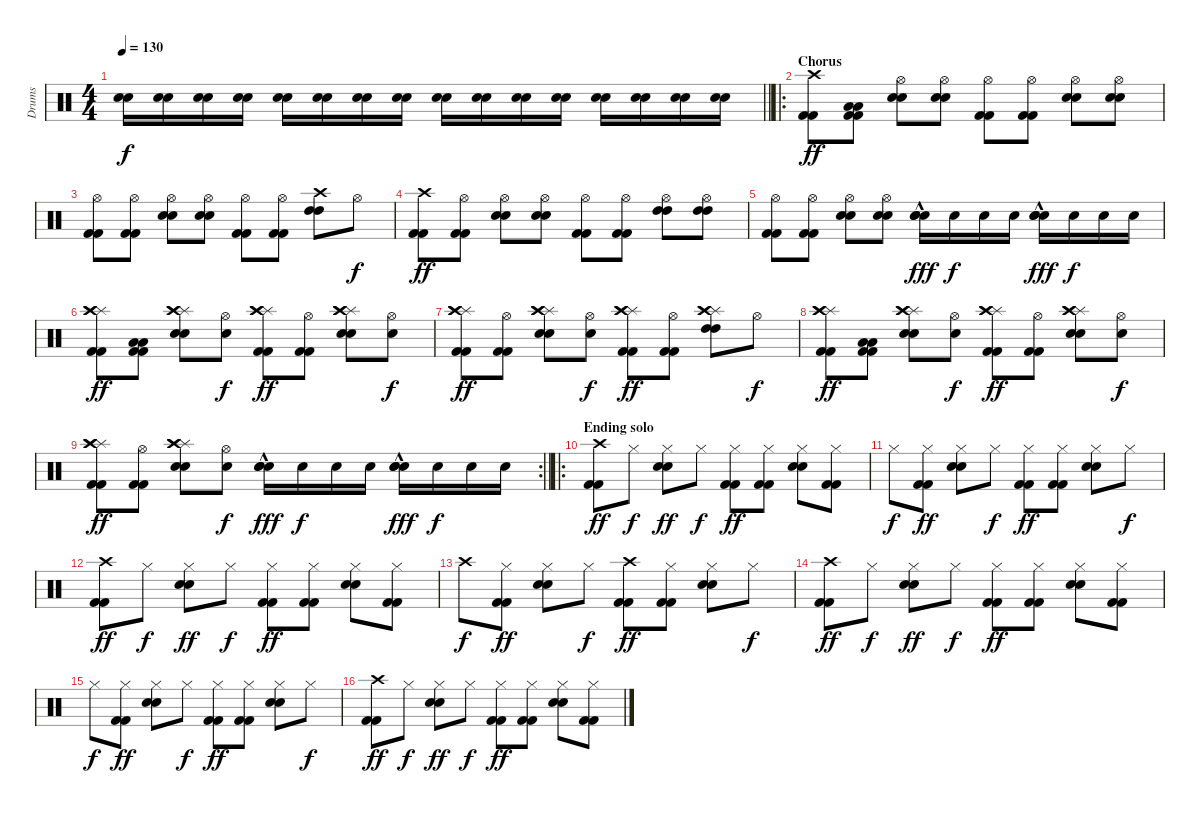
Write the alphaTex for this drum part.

\track ("Drums" "Drums") {instrument percussion}
\staff {score}
\articulation defaults
\ts (4 4)
\tempo 130
\clef neutral
\barLineRight lightlight
\ks c
("Snare (hit) 2" "Electric Snare (hit)").16{dy f} ("Snare (hit) 2" "Electric Snare (hit)").16 ("Snare (hit) 2" "Electric Snare (hit)").16 ("Snare (hit) 2" "Electric Snare (hit)").16 ("Snare (hit) 2" "Electric Snare (hit)").16 ("Snare (hit) 2" "Electric Snare (hit)").16 ("Snare (hit) 2" "Electric Snare (hit)").16 ("Snare (hit) 2" "Electric Snare (hit)").16 ("Snare (hit) 2" "Electric Snare (hit)").16 ("Snare (hit) 2" "Electric Snare (hit)").16 ("Snare (hit) 2" "Electric Snare (hit)").16 ("Snare (hit) 2" "Electric Snare (hit)").16 ("Snare (hit) 2" "Electric Snare (hit)").16 ("Snare (hit) 2" "Electric Snare (hit)").16 ("Snare (hit) 2" "Electric Snare (hit)").16 ("Snare (hit) 2" "Electric Snare (hit)").16 |
\ro
\section ("" "Chorus")
("Kick (hit) 2" "Kick (hit) 2" "Crash high (hit)").8{dy ff} ("Kick (hit) 2" "Kick (hit) 2" "Low Tom (hit)" "Low Tom (hit)").8 ("Electric Snare (hit)" "Electric Snare (hit)" "Hi-Hat (open)").8 ("Electric Snare (hit)" "Electric Snare (hit)" "Hi-Hat (open)").8 ("Kick (hit) 2" "Kick (hit) 2" "Hi-Hat (open)").8 ("Kick (hit) 2" "Kick (hit) 2" "Hi-Hat (open)").8 ("Electric Snare (hit)" "Electric Snare (hit)" "Hi-Hat (open)").8 ("Electric Snare (hit)" "Electric Snare (hit)" "Hi-Hat (open)").8 |
("Kick (hit) 2" "Kick (hit) 2" "Hi-Hat (open)").8 ("Kick (hit) 2" "Kick (hit) 2" "Hi-Hat (open)").8 ("Electric Snare (hit)" "Electric Snare (hit)" "Hi-Hat (open)").8 ("Electric Snare (hit)" "Electric Snare (hit)" "Hi-Hat (open)").8 ("Kick (hit) 2" "Kick (hit) 2" "Hi-Hat (open)").8 ("Kick (hit) 2" "Kick (hit) 2" "Hi-Hat (open)").8 ("High Tom (hit)" "High Tom (hit)" "Crash high (hit)").8 "Hi-Hat (open)".8{dy f} |
("Kick (hit) 2" "Kick (hit) 2" "Crash high (hit)").8{dy ff} ("Kick (hit) 2" "Kick (hit) 2" "Hi-Hat (open)").8 ("Electric Snare (hit)" "Electric Snare (hit)" "Hi-Hat (open)").8 ("Electric Snare (hit)" "Electric Snare (hit)" "Hi-Hat (open)").8 ("Kick (hit) 2" "Kick (hit) 2" "Hi-Hat (open)").8 ("Kick (hit) 2" "Kick (hit) 2" "Hi-Hat (open)").8 ("High Tom (hit)" "High Tom (hit)" "Hi-Hat (open)").8 ("High Tom (hit)" "High Tom (hit)" "Hi-Hat (open)").8 |
("Kick (hit) 2" "Kick (hit) 2" "Hi-Hat (open)").8 ("Kick (hit) 2" "Kick (hit) 2" "Hi-Hat (open)").8 ("Electric Snare (hit)" "Electric Snare (hit)" "Hi-Hat (open)").8 ("Electric Snare (hit)" "Electric Snare (hit)" "Hi-Hat (open)").8 ("Snare (hit) 2"{hac} "Electric Snare (hit)"{hac} "Snare (hit) 2"{hac}).16{dy fff} "Electric Snare (hit)".16{dy f} "Electric Snare (hit)".16 "Electric Snare (hit)".16 ("Snare (hit) 2"{hac} "Electric Snare (hit)"{hac} "Snare (hit) 2"{hac}).16{dy fff} "Electric Snare (hit)".16{dy f} "Electric Snare (hit)".16 "Electric Snare (hit)".16 |
("Kick (hit) 2" "Kick (hit) 2" "Splash (hit)" "Crash high (hit)" "Crash high (hit)").8{dy ff} ("Kick (hit) 2" "Kick (hit) 2" "Low Tom (hit)" "Low Tom (hit)").8 ("Electric Snare (hit)" "Electric Snare (hit)" "Splash (hit)" "Crash high (hit)" "Crash high (hit)").8 ("Electric Snare (hit)" "Hi-Hat (open)").8{dy f} ("Kick (hit) 2" "Kick (hit) 2" "Splash (hit)" "Crash high (hit)" "Crash high (hit)").8{dy ff} ("Kick (hit) 2" "Kick (hit) 2" "Hi-Hat (open)").8 ("Electric Snare (hit)" "Electric Snare (hit)" "Splash (hit)" "Crash high (hit)" "Crash high (hit)").8 ("Electric Snare (hit)" "Hi-Hat (open)").8{dy f} |
("Kick (hit) 2" "Kick (hit) 2" "Splash (hit)" "Crash high (hit)" "Crash high (hit)").8{dy ff} ("Kick (hit) 2" "Kick (hit) 2" "Hi-Hat (open)").8 ("Electric Snare (hit)" "Electric Snare (hit)" "Splash (hit)" "Crash high (hit)" "Crash high (hit)").8 ("Electric Snare (hit)" "Hi-Hat (open)").8{dy f} ("Kick (hit) 2" "Kick (hit) 2" "Splash (hit)" "Crash high (hit)" "Crash high (hit)").8{dy ff} ("Kick (hit) 2" "Kick (hit) 2" "Hi-Hat (open)").8 ("High Tom (hit)" "High Tom (hit)" "Splash (hit)" "Crash high (hit)" "Crash high (hit)").8 "Hi-Hat (open)".8{dy f} |
("Kick (hit) 2" "Kick (hit) 2" "Splash (hit)" "Crash high (hit)" "Crash high (hit)").8{dy ff} ("Kick (hit) 2" "Kick (hit) 2" "Low Tom (hit)" "Low Tom (hit)").8 ("Electric Snare (hit)" "Electric Snare (hit)" "Splash (hit)" "Crash high (hit)" "Crash high (hit)").8 ("Electric Snare (hit)" "Hi-Hat (open)").8{dy f} ("Kick (hit) 2" "Kick (hit) 2" "Splash (hit)" "Crash high (hit)" "Crash high (hit)").8{dy ff} ("Kick (hit) 2" "Kick (hit) 2" "Hi-Hat (open)").8 ("Electric Snare (hit)" "Electric Snare (hit)" "Splash (hit)" "Crash high (hit)" "Crash high (hit)").8 ("Electric Snare (hit)" "Hi-Hat (open)").8{dy f} |
\rc 2
\barLineRight lightlight
("Kick (hit) 2" "Kick (hit) 2" "Splash (hit)" "Crash high (hit)" "Crash high (hit)").8{dy ff} ("Kick (hit) 2" "Kick (hit) 2" "Hi-Hat (open)").8 ("Electric Snare (hit)" "Electric Snare (hit)" "Splash (hit)" "Crash high (hit)" "Crash high (hit)").8 ("Electric Snare (hit)" "Hi-Hat (open)").8{dy f} ("Snare (hit) 2"{hac} "Electric Snare (hit)"{hac} "Snare (hit) 2"{hac}).16{dy fff} "Electric Snare (hit)".16{dy f} "Electric Snare (hit)".16 "Electric Snare (hit)".16 ("Snare (hit) 2"{hac} "Electric Snare (hit)"{hac} "Snare (hit) 2"{hac}).16{dy fff} "Electric Snare (hit)".16{dy f} "Electric Snare (hit)".16 "Electric Snare (hit)".16 |
\ro
\section ("" "Ending solo")
("Kick (hit) 2" "Kick (hit) 2" "Crash high (hit)").8{dy ff} "Hi-Hat (closed)".8{dy f} ("Electric Snare (hit)" "Electric Snare (hit)" "Hi-Hat (closed)").8{dy ff} "Hi-Hat (closed)".8{dy f} ("Kick (hit) 2" "Kick (hit) 2" "Hi-Hat (closed)").8{dy ff} ("Kick (hit) 2" "Kick (hit) 2" "Hi-Hat (closed)").8 ("Electric Snare (hit)" "Electric Snare (hit)" "Hi-Hat (closed)").8 ("Kick (hit) 2" "Kick (hit) 2" "Hi-Hat (closed)").8 |
"Hi-Hat (closed)".8{dy f} ("Kick (hit) 2" "Kick (hit) 2" "Hi-Hat (closed)").8{dy ff} ("Electric Snare (hit)" "Electric Snare (hit)" "Hi-Hat (closed)").8 "Hi-Hat (closed)".8{dy f} ("Kick (hit) 2" "Kick (hit) 2" "Hi-Hat (closed)").8{dy ff} ("Kick (hit) 2" "Kick (hit) 2" "Hi-Hat (closed)").8 ("Electric Snare (hit)" "Electric Snare (hit)" "Hi-Hat (closed)").8 "Hi-Hat (closed)".8{dy f} |
("Kick (hit) 2" "Kick (hit) 2" "Crash high (hit)").8{dy ff} "Hi-Hat (closed)".8{dy f} ("Electric Snare (hit)" "Electric Snare (hit)" "Hi-Hat (closed)").8{dy ff} "Hi-Hat (closed)".8{dy f} ("Kick (hit) 2" "Kick (hit) 2" "Hi-Hat (closed)").8{dy ff} ("Kick (hit) 2" "Kick (hit) 2" "Hi-Hat (closed)").8 ("Electric Snare (hit)" "Electric Snare (hit)" "Hi-Hat (closed)").8 ("Kick (hit) 2" "Kick (hit) 2" "Hi-Hat (closed)").8 |
"Crash high (hit)".8{dy f} ("Kick (hit) 2" "Kick (hit) 2" "Hi-Hat (closed)").8{dy ff} ("Electric Snare (hit)" "Electric Snare (hit)" "Hi-Hat (closed)").8 "Hi-Hat (closed)".8{dy f} ("Kick (hit) 2" "Kick (hit) 2" "Crash high (hit)").8{dy ff} ("Kick (hit) 2" "Kick (hit) 2" "Hi-Hat (closed)").8 ("Electric Snare (hit)" "Electric Snare (hit)" "Hi-Hat (closed)").8 "Hi-Hat (closed)".8{dy f} |
("Kick (hit) 2" "Kick (hit) 2" "Crash high (hit)").8{dy ff} "Hi-Hat (closed)".8{dy f} ("Electric Snare (hit)" "Electric Snare (hit)" "Hi-Hat (closed)").8{dy ff} "Hi-Hat (closed)".8{dy f} ("Kick (hit) 2" "Kick (hit) 2" "Hi-Hat (closed)").8{dy ff} ("Kick (hit) 2" "Kick (hit) 2" "Hi-Hat (closed)").8 ("Electric Snare (hit)" "Electric Snare (hit)" "Hi-Hat (closed)").8 ("Kick (hit) 2" "Kick (hit) 2" "Hi-Hat (closed)").8 |
"Hi-Hat (closed)".8{dy f} ("Kick (hit) 2" "Kick (hit) 2" "Hi-Hat (closed)").8{dy ff} ("Electric Snare (hit)" "Electric Snare (hit)" "Hi-Hat (closed)").8 "Hi-Hat (closed)".8{dy f} ("Kick (hit) 2" "Kick (hit) 2" "Hi-Hat (closed)").8{dy ff} ("Kick (hit) 2" "Kick (hit) 2" "Hi-Hat (closed)").8 ("Electric Snare (hit)" "Electric Snare (hit)" "Hi-Hat (closed)").8 "Hi-Hat (closed)".8{dy f} |
("Kick (hit) 2" "Kick (hit) 2" "Crash high (hit)").8{dy ff} "Hi-Hat (closed)".8{dy f} ("Electric Snare (hit)" "Electric Snare (hit)" "Hi-Hat (closed)").8{dy ff} "Hi-Hat (closed)".8{dy f} ("Kick (hit) 2" "Kick (hit) 2" "Hi-Hat (closed)").8{dy ff} ("Kick (hit) 2" "Kick (hit) 2" "Hi-Hat (closed)").8 ("Electric Snare (hit)" "Electric Snare (hit)" "Hi-Hat (closed)").8 ("Kick (hit) 2" "Kick (hit) 2" "Hi-Hat (closed)").8
